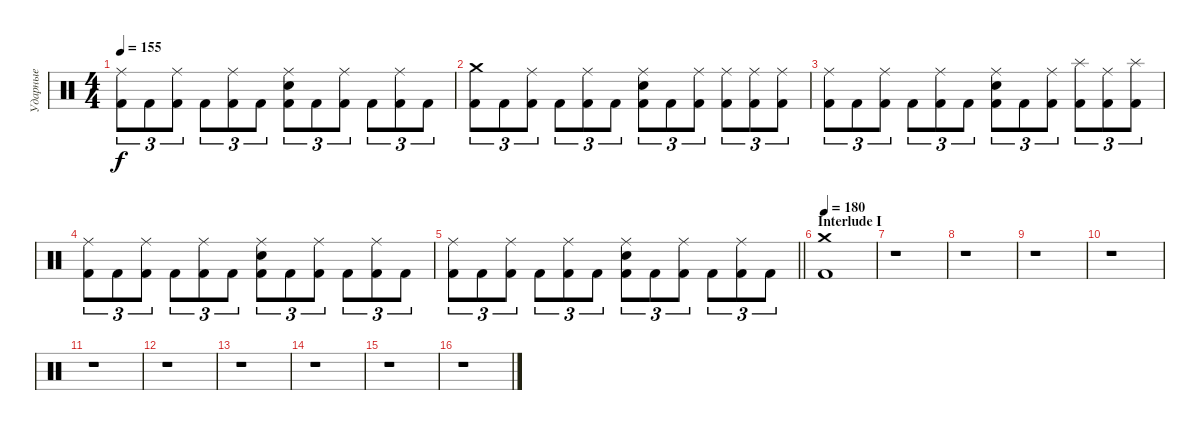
\track ("Ударные" "Ударные") {instrument percussion}
\staff {score}
\articulation defaults
\ts (4 4)
\tempo 155
\clef neutral
\ks c
("Kick (hit) 2" "Ride (middle)").8{tu (3 2) dy f} "Kick (hit) 2".8{tu (3 2)} ("Kick (hit) 2" "Ride (middle)").8{tu (3 2)} "Kick (hit) 2".8{tu (3 2)} ("Kick (hit) 2" "Ride (middle)").8{tu (3 2)} "Kick (hit) 2".8{tu (3 2)} ("Kick (hit) 2" "Electric Snare (hit)" "Ride (middle)").8{tu (3 2)} "Kick (hit) 2".8{tu (3 2)} ("Kick (hit) 2" "Ride (middle)").8{tu (3 2)} "Kick (hit) 2".8{tu (3 2)} ("Kick (hit) 2" "Ride (middle)").8{tu (3 2)} "Kick (hit) 2".8{tu (3 2)} |
("Kick (hit) 2" "Crash medium (hit)").8{tu (3 2)} "Kick (hit) 2".8{tu (3 2)} ("Kick (hit) 2" "Ride (middle)").8{tu (3 2)} "Kick (hit) 2".8{tu (3 2)} ("Kick (hit) 2" "Ride (middle)").8{tu (3 2)} "Kick (hit) 2".8{tu (3 2)} ("Kick (hit) 2" "Electric Snare (hit)" "Ride (middle)").8{tu (3 2)} "Kick (hit) 2".8{tu (3 2)} ("Kick (hit) 2" "Ride (middle)").8{tu (3 2)} ("Kick (hit) 2" "Ride (middle)").8{tu (3 2)} ("Kick (hit) 2" "Ride (middle)").8{tu (3 2)} ("Kick (hit) 2" "Ride (middle)").8{tu (3 2)} |
("Kick (hit) 2" "Ride (middle)").8{tu (3 2)} "Kick (hit) 2".8{tu (3 2)} ("Kick (hit) 2" "Ride (middle)").8{tu (3 2)} "Kick (hit) 2".8{tu (3 2)} ("Kick (hit) 2" "Ride (middle)").8{tu (3 2)} "Kick (hit) 2".8{tu (3 2)} ("Kick (hit) 2" "Electric Snare (hit)" "Ride (middle)").8{tu (3 2)} "Kick (hit) 2".8{tu (3 2)} ("Kick (hit) 2" "Ride (middle)").8{tu (3 2)} ("Kick (hit) 2" "Splash (hit)").8{tu (3 2)} ("Kick (hit) 2" "Ride (middle)").8{tu (3 2)} ("Kick (hit) 2" "Splash (hit)").8{tu (3 2)} |
("Kick (hit) 2" "Ride (middle)").8{tu (3 2)} "Kick (hit) 2".8{tu (3 2)} ("Kick (hit) 2" "Ride (middle)").8{tu (3 2)} "Kick (hit) 2".8{tu (3 2)} ("Kick (hit) 2" "Ride (middle)").8{tu (3 2)} "Kick (hit) 2".8{tu (3 2)} ("Kick (hit) 2" "Electric Snare (hit)" "Ride (middle)").8{tu (3 2)} "Kick (hit) 2".8{tu (3 2)} ("Kick (hit) 2" "Ride (middle)").8{tu (3 2)} "Kick (hit) 2".8{tu (3 2)} ("Kick (hit) 2" "Ride (middle)").8{tu (3 2)} "Kick (hit) 2".8{tu (3 2)} |
\barLineRight lightlight
("Kick (hit) 2" "Ride (middle)").8{tu (3 2)} "Kick (hit) 2".8{tu (3 2)} ("Kick (hit) 2" "Ride (middle)").8{tu (3 2)} "Kick (hit) 2".8{tu (3 2)} ("Kick (hit) 2" "Ride (middle)").8{tu (3 2)} "Kick (hit) 2".8{tu (3 2)} ("Kick (hit) 2" "Electric Snare (hit)" "Ride (middle)").8{tu (3 2)} "Kick (hit) 2".8{tu (3 2)} ("Kick (hit) 2" "Ride (middle)").8{tu (3 2)} "Kick (hit) 2".8{tu (3 2)} ("Kick (hit) 2" "Ride (middle)").8{tu (3 2)} "Kick (hit) 2".8{tu (3 2)} |
\section ("" "Interlude I")
\tempo 180
("Kick (hit) 2" "Crash medium (hit)").1 |
r.1 |
r.1 |
r.1 |
r.1 |
r.1 |
r.1 |
r.1 |
r.1 |
r.1 |
r.1
